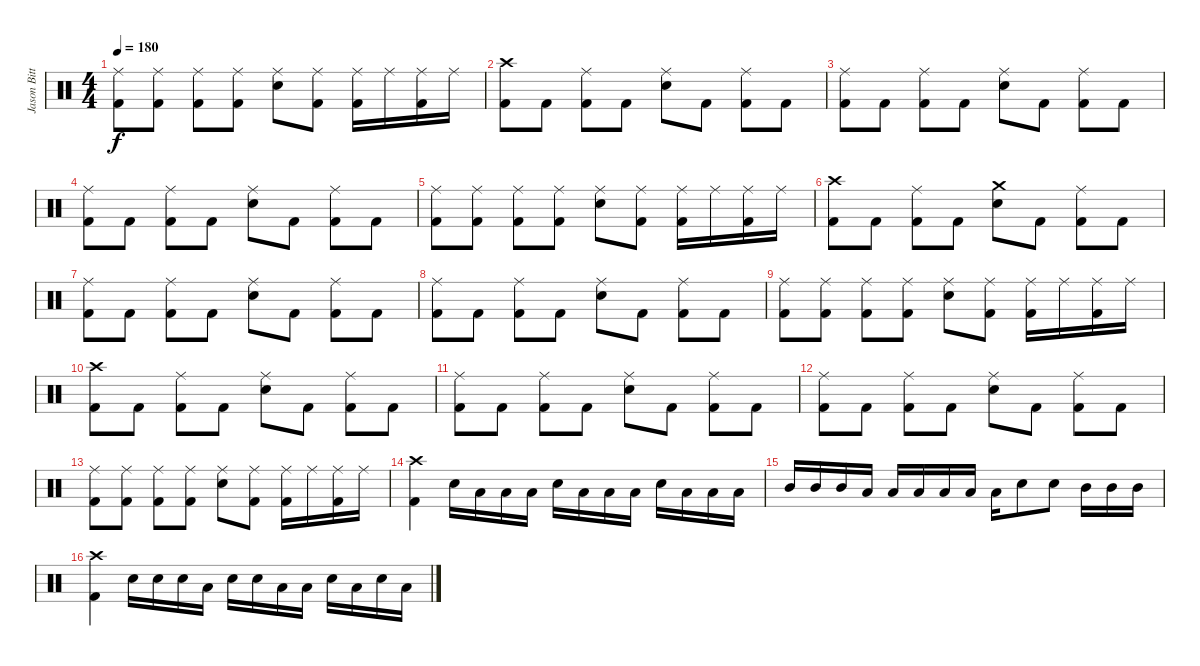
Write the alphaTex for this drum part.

\track ("Jason Bittner" "Jason Bitt") {instrument percussion}
\staff {score}
\articulation defaults
\ts (4 4)
\tempo 180
\clef neutral
\ks c
("Ride (middle)" "Kick (hit) 2").8{dy f} ("Ride (middle)" "Kick (hit) 2").8 ("Ride (middle)" "Kick (hit) 2").8 ("Ride (middle)" "Kick (hit) 2").8 ("Ride (middle)" "Electric Snare (hit)").8 ("Ride (middle)" "Kick (hit) 2").8 ("Ride (middle)" "Kick (hit) 2").16 "Ride (middle)".16 ("Ride (middle)" "Kick (hit) 2").16 "Ride (middle)".16 |
("Crash high (hit)" "Kick (hit) 2").8 "Kick (hit) 2".8 ("Ride (middle)" "Kick (hit) 2").8 "Kick (hit) 2".8 ("Ride (middle)" "Electric Snare (hit)").8 "Kick (hit) 2".8 ("Ride (middle)" "Kick (hit) 2").8 "Kick (hit) 2".8 |
("Ride (middle)" "Kick (hit) 2").8 "Kick (hit) 2".8 ("Ride (middle)" "Kick (hit) 2").8 "Kick (hit) 2".8 ("Ride (middle)" "Electric Snare (hit)").8 "Kick (hit) 2".8 ("Ride (middle)" "Kick (hit) 2").8 "Kick (hit) 2".8 |
("Ride (middle)" "Kick (hit) 2").8 "Kick (hit) 2".8 ("Ride (middle)" "Kick (hit) 2").8 "Kick (hit) 2".8 ("Ride (middle)" "Electric Snare (hit)").8 "Kick (hit) 2".8 ("Ride (middle)" "Kick (hit) 2").8 "Kick (hit) 2".8 |
("Ride (middle)" "Kick (hit) 2").8 ("Ride (middle)" "Kick (hit) 2").8 ("Ride (middle)" "Kick (hit) 2").8 ("Ride (middle)" "Kick (hit) 2").8 ("Ride (middle)" "Electric Snare (hit)").8 ("Ride (middle)" "Kick (hit) 2").8 ("Ride (middle)" "Kick (hit) 2").16 "Ride (middle)".16 ("Ride (middle)" "Kick (hit) 2").16 "Ride (middle)".16 |
("Crash high (hit)" "Kick (hit) 2").8 "Kick (hit) 2".8 ("Ride (middle)" "Kick (hit) 2").8 "Kick (hit) 2".8 ("Crash medium (hit)" "Electric Snare (hit)").8 "Kick (hit) 2".8 ("Ride (middle)" "Kick (hit) 2").8 "Kick (hit) 2".8 |
("Ride (middle)" "Kick (hit) 2").8 "Kick (hit) 2".8 ("Ride (middle)" "Kick (hit) 2").8 "Kick (hit) 2".8 ("Ride (middle)" "Electric Snare (hit)").8 "Kick (hit) 2".8 ("Ride (middle)" "Kick (hit) 2").8 "Kick (hit) 2".8 |
("Ride (middle)" "Kick (hit) 2").8 "Kick (hit) 2".8 ("Ride (middle)" "Kick (hit) 2").8 "Kick (hit) 2".8 ("Ride (middle)" "Electric Snare (hit)").8 "Kick (hit) 2".8 ("Ride (middle)" "Kick (hit) 2").8 "Kick (hit) 2".8 |
("Ride (middle)" "Kick (hit) 2").8 ("Ride (middle)" "Kick (hit) 2").8 ("Ride (middle)" "Kick (hit) 2").8 ("Ride (middle)" "Kick (hit) 2").8 ("Ride (middle)" "Electric Snare (hit)").8 ("Ride (middle)" "Kick (hit) 2").8 ("Ride (middle)" "Kick (hit) 2").16 "Ride (middle)".16 ("Ride (middle)" "Kick (hit) 2").16 "Ride (middle)".16 |
("Crash high (hit)" "Kick (hit) 2").8 "Kick (hit) 2".8 ("Ride (middle)" "Kick (hit) 2").8 "Kick (hit) 2".8 ("Ride (middle)" "Electric Snare (hit)").8 "Kick (hit) 2".8 ("Ride (middle)" "Kick (hit) 2").8 "Kick (hit) 2".8 |
("Ride (middle)" "Kick (hit) 2").8 "Kick (hit) 2".8 ("Ride (middle)" "Kick (hit) 2").8 "Kick (hit) 2".8 ("Ride (middle)" "Electric Snare (hit)").8 "Kick (hit) 2".8 ("Ride (middle)" "Kick (hit) 2").8 "Kick (hit) 2".8 |
("Ride (middle)" "Kick (hit) 2").8 "Kick (hit) 2".8 ("Ride (middle)" "Kick (hit) 2").8 "Kick (hit) 2".8 ("Ride (middle)" "Electric Snare (hit)").8 "Kick (hit) 2".8 ("Ride (middle)" "Kick (hit) 2").8 "Kick (hit) 2".8 |
("Ride (middle)" "Kick (hit) 2").8 ("Ride (middle)" "Kick (hit) 2").8 ("Ride (middle)" "Kick (hit) 2").8 ("Ride (middle)" "Kick (hit) 2").8 ("Ride (middle)" "Electric Snare (hit)").8 ("Ride (middle)" "Kick (hit) 2").8 ("Ride (middle)" "Kick (hit) 2").16 "Ride (middle)".16 ("Ride (middle)" "Kick (hit) 2").16 "Ride (middle)".16 |
("Crash high (hit)" "Kick (hit) 2").4 "Electric Snare (hit)".16 "Low Floor Tom (hit)".16 "Low Floor Tom (hit)".16 "Low Floor Tom (hit)".16 "Electric Snare (hit)".16 "Low Floor Tom (hit)".16 "Low Floor Tom (hit)".16 "Low Floor Tom (hit)".16 "Electric Snare (hit)".16 "Low Floor Tom (hit)".16 "Low Floor Tom (hit)".16 "Low Floor Tom (hit)".16 |
"Mid Tom (hit)".16 "Mid Tom (hit)".16 "Mid Tom (hit)".16 "Low Floor Tom (hit)".16 "Low Floor Tom (hit)".16 "Low Floor Tom (hit)".16 "Low Floor Tom (hit)".16 "Low Floor Tom (hit)".16 "Low Floor Tom (hit)".16 "Electric Snare (hit)".8 "Electric Snare (hit)".8 "Mid Tom (hit)".16 "Mid Tom (hit)".16 "Mid Tom (hit)".16 |
("Crash high (hit)" "Kick (hit) 2").4 "Electric Snare (hit)".16 "Electric Snare (hit)".16 "Electric Snare (hit)".16 "Low Floor Tom (hit)".16 "Electric Snare (hit)".16 "Electric Snare (hit)".16 "Low Floor Tom (hit)".16 "Low Floor Tom (hit)".16 "Electric Snare (hit)".16 "Low Floor Tom (hit)".16 "Electric Snare (hit)".16 "Low Floor Tom (hit)".16
